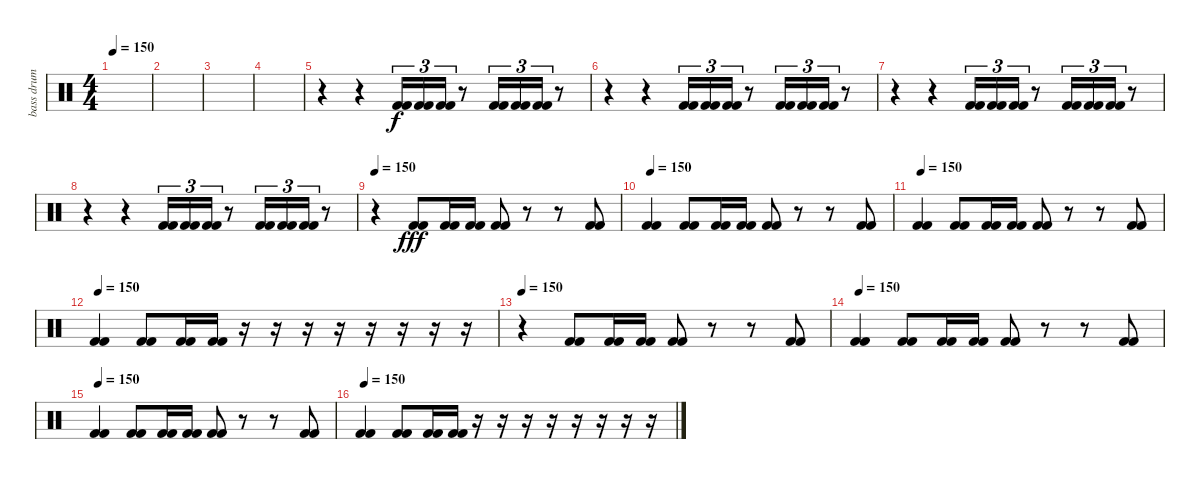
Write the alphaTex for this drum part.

\track ("bass drum" "bass drum") {instrument percussion}
\staff {score}
\articulation defaults
\ts (4 4)
\tempo 150
\clef neutral
\ks c
|
|
|
|
r.4 r.4 ("Kick (hit) 2" "Kick (hit) 2").16{tu (3 2) dy f} ("Kick (hit) 2" "Kick (hit) 2").16{tu (3 2)} ("Kick (hit) 2" "Kick (hit) 2").16{tu (3 2)} r.8 ("Kick (hit) 2" "Kick (hit) 2").16{tu (3 2)} ("Kick (hit) 2" "Kick (hit) 2").16{tu (3 2)} ("Kick (hit) 2" "Kick (hit) 2").16{tu (3 2)} r.8 |
r.4 r.4 ("Kick (hit) 2" "Kick (hit) 2").16{tu (3 2)} ("Kick (hit) 2" "Kick (hit) 2").16{tu (3 2)} ("Kick (hit) 2" "Kick (hit) 2").16{tu (3 2)} r.8 ("Kick (hit) 2" "Kick (hit) 2").16{tu (3 2)} ("Kick (hit) 2" "Kick (hit) 2").16{tu (3 2)} ("Kick (hit) 2" "Kick (hit) 2").16{tu (3 2)} r.8 |
r.4 r.4 ("Kick (hit) 2" "Kick (hit) 2").16{tu (3 2)} ("Kick (hit) 2" "Kick (hit) 2").16{tu (3 2)} ("Kick (hit) 2" "Kick (hit) 2").16{tu (3 2)} r.8 ("Kick (hit) 2" "Kick (hit) 2").16{tu (3 2)} ("Kick (hit) 2" "Kick (hit) 2").16{tu (3 2)} ("Kick (hit) 2" "Kick (hit) 2").16{tu (3 2)} r.8 |
r.4 r.4 ("Kick (hit) 2" "Kick (hit) 2").16{tu (3 2)} ("Kick (hit) 2" "Kick (hit) 2").16{tu (3 2)} ("Kick (hit) 2" "Kick (hit) 2").16{tu (3 2)} r.8 ("Kick (hit) 2" "Kick (hit) 2").16{tu (3 2)} ("Kick (hit) 2" "Kick (hit) 2").16{tu (3 2)} ("Kick (hit) 2" "Kick (hit) 2").16{tu (3 2)} r.8 |
\tempo 150
r.4{volume 16} ("Kick (hit) 2" "Kick (hit) 2").8{dy fff} ("Kick (hit) 2" "Kick (hit) 2").16 ("Kick (hit) 2" "Kick (hit) 2").16 ("Kick (hit) 2" "Kick (hit) 2").8 r.8 r.8 ("Kick (hit) 2" "Kick (hit) 2").8 |
\tempo 150
("Kick (hit) 2" "Kick (hit) 2").4 ("Kick (hit) 2" "Kick (hit) 2").8 ("Kick (hit) 2" "Kick (hit) 2").16 ("Kick (hit) 2" "Kick (hit) 2").16 ("Kick (hit) 2" "Kick (hit) 2").8 r.8 r.8 ("Kick (hit) 2" "Kick (hit) 2").8 |
\tempo 150
("Kick (hit) 2" "Kick (hit) 2").4 ("Kick (hit) 2" "Kick (hit) 2").8 ("Kick (hit) 2" "Kick (hit) 2").16 ("Kick (hit) 2" "Kick (hit) 2").16 ("Kick (hit) 2" "Kick (hit) 2").8 r.8 r.8 ("Kick (hit) 2" "Kick (hit) 2").8 |
\tempo 150
("Kick (hit) 2" "Kick (hit) 2").4 ("Kick (hit) 2" "Kick (hit) 2").8 ("Kick (hit) 2" "Kick (hit) 2").16 ("Kick (hit) 2" "Kick (hit) 2").16 r.16 r.16 r.16 r.16 r.16 r.16 r.16 r.16 |
\tempo 150
r.4{volume 16} ("Kick (hit) 2" "Kick (hit) 2").8 ("Kick (hit) 2" "Kick (hit) 2").16 ("Kick (hit) 2" "Kick (hit) 2").16 ("Kick (hit) 2" "Kick (hit) 2").8 r.8 r.8 ("Kick (hit) 2" "Kick (hit) 2").8 |
\tempo 150
("Kick (hit) 2" "Kick (hit) 2").4 ("Kick (hit) 2" "Kick (hit) 2").8 ("Kick (hit) 2" "Kick (hit) 2").16 ("Kick (hit) 2" "Kick (hit) 2").16 ("Kick (hit) 2" "Kick (hit) 2").8 r.8 r.8 ("Kick (hit) 2" "Kick (hit) 2").8 |
\tempo 150
("Kick (hit) 2" "Kick (hit) 2").4 ("Kick (hit) 2" "Kick (hit) 2").8 ("Kick (hit) 2" "Kick (hit) 2").16 ("Kick (hit) 2" "Kick (hit) 2").16 ("Kick (hit) 2" "Kick (hit) 2").8 r.8 r.8 ("Kick (hit) 2" "Kick (hit) 2").8 |
\tempo 150
("Kick (hit) 2" "Kick (hit) 2").4 ("Kick (hit) 2" "Kick (hit) 2").8 ("Kick (hit) 2" "Kick (hit) 2").16 ("Kick (hit) 2" "Kick (hit) 2").16 r.16 r.16 r.16 r.16 r.16 r.16 r.16 r.16
